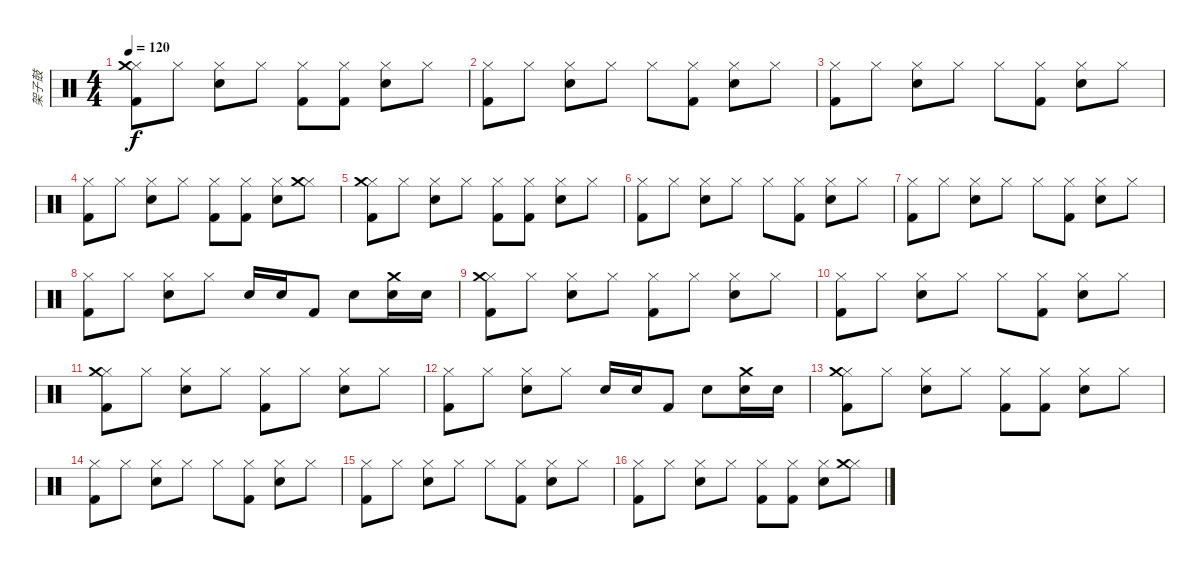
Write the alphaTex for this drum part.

\track ("架子鼓" "架子鼓") {instrument percussion}
\staff {score}
\articulation defaults
\ts (4 4)
\tempo 120
\clef neutral
\ks c
("Hi-Hat (closed)" "Kick (hit) 2" "Crash medium (hit)").8{dy f} "Hi-Hat (closed)".8 ("Hi-Hat (closed)" "Snare (hit) 2").8 "Hi-Hat (closed)".8 ("Hi-Hat (closed)" "Kick (hit) 2").8 ("Hi-Hat (closed)" "Kick (hit) 2").8 ("Hi-Hat (closed)" "Snare (hit) 2").8 "Hi-Hat (closed)".8 |
("Hi-Hat (closed)" "Kick (hit) 2").8 "Hi-Hat (closed)".8 ("Hi-Hat (closed)" "Snare (hit) 2").8 "Hi-Hat (closed)".8 "Hi-Hat (closed)".8 ("Hi-Hat (closed)" "Kick (hit) 2").8 ("Hi-Hat (closed)" "Snare (hit) 2").8 "Hi-Hat (closed)".8 |
("Hi-Hat (closed)" "Kick (hit) 2").8 "Hi-Hat (closed)".8 ("Hi-Hat (closed)" "Snare (hit) 2").8 "Hi-Hat (closed)".8 "Hi-Hat (closed)".8 ("Hi-Hat (closed)" "Kick (hit) 2").8 ("Hi-Hat (closed)" "Snare (hit) 2").8 "Hi-Hat (closed)".8 |
("Hi-Hat (closed)" "Kick (hit) 2").8 "Hi-Hat (closed)".8 ("Hi-Hat (closed)" "Snare (hit) 2").8 "Hi-Hat (closed)".8 ("Hi-Hat (closed)" "Kick (hit) 2").8 ("Hi-Hat (closed)" "Kick (hit) 2").8 ("Hi-Hat (closed)" "Snare (hit) 2").8 ("Hi-Hat (closed)" "Crash medium (hit)").8 |
("Hi-Hat (closed)" "Kick (hit) 2" "Crash medium (hit)").8 "Hi-Hat (closed)".8 ("Hi-Hat (closed)" "Snare (hit) 2").8 "Hi-Hat (closed)".8 ("Hi-Hat (closed)" "Kick (hit) 2").8 ("Hi-Hat (closed)" "Kick (hit) 2").8 ("Hi-Hat (closed)" "Snare (hit) 2").8 "Hi-Hat (closed)".8 |
("Hi-Hat (closed)" "Kick (hit) 2").8 "Hi-Hat (closed)".8 ("Hi-Hat (closed)" "Snare (hit) 2").8 "Hi-Hat (closed)".8 "Hi-Hat (closed)".8 ("Hi-Hat (closed)" "Kick (hit) 2").8 ("Hi-Hat (closed)" "Snare (hit) 2").8 "Hi-Hat (closed)".8 |
("Hi-Hat (closed)" "Kick (hit) 2").8 "Hi-Hat (closed)".8 ("Hi-Hat (closed)" "Snare (hit) 2").8 "Hi-Hat (closed)".8 "Hi-Hat (closed)".8 ("Hi-Hat (closed)" "Kick (hit) 2").8 ("Hi-Hat (closed)" "Snare (hit) 2").8 "Hi-Hat (closed)".8 |
("Hi-Hat (closed)" "Kick (hit) 2").8 "Hi-Hat (closed)".8 ("Hi-Hat (closed)" "Snare (hit) 2").8 "Hi-Hat (closed)".8 "Snare (hit) 2".16 "Snare (hit) 2".16 "Kick (hit) 2".8 "Snare (hit) 2".8 ("Crash medium (hit)" "Snare (hit) 2").16 "Snare (hit) 2".16 |
("Hi-Hat (closed)" "Kick (hit) 2" "Crash medium (hit)").8 "Hi-Hat (closed)".8 ("Hi-Hat (closed)" "Snare (hit) 2").8 "Hi-Hat (closed)".8 ("Hi-Hat (closed)" "Kick (hit) 2").8 "Hi-Hat (closed)".8 ("Hi-Hat (closed)" "Snare (hit) 2").8 "Hi-Hat (closed)".8 |
("Hi-Hat (closed)" "Kick (hit) 2").8 "Hi-Hat (closed)".8 ("Hi-Hat (closed)" "Snare (hit) 2").8 "Hi-Hat (closed)".8 "Hi-Hat (closed)".8 ("Hi-Hat (closed)" "Kick (hit) 2").8 ("Hi-Hat (closed)" "Snare (hit) 2").8 "Hi-Hat (closed)".8 |
("Hi-Hat (closed)" "Kick (hit) 2" "Crash medium (hit)").8 "Hi-Hat (closed)".8 ("Hi-Hat (closed)" "Snare (hit) 2").8 "Hi-Hat (closed)".8 ("Hi-Hat (closed)" "Kick (hit) 2").8 "Hi-Hat (closed)".8 ("Hi-Hat (closed)" "Snare (hit) 2").8 "Hi-Hat (closed)".8 |
("Hi-Hat (closed)" "Kick (hit) 2").8 "Hi-Hat (closed)".8 ("Hi-Hat (closed)" "Snare (hit) 2").8 "Hi-Hat (closed)".8 "Snare (hit) 2".16 "Snare (hit) 2".16 "Kick (hit) 2".8 "Snare (hit) 2".8 ("Crash medium (hit)" "Snare (hit) 2").16 "Snare (hit) 2".16 |
("Hi-Hat (closed)" "Kick (hit) 2" "Crash medium (hit)").8 "Hi-Hat (closed)".8 ("Hi-Hat (closed)" "Snare (hit) 2").8 "Hi-Hat (closed)".8 ("Hi-Hat (closed)" "Kick (hit) 2").8 ("Hi-Hat (closed)" "Kick (hit) 2").8 ("Hi-Hat (closed)" "Snare (hit) 2").8 "Hi-Hat (closed)".8 |
("Hi-Hat (closed)" "Kick (hit) 2").8 "Hi-Hat (closed)".8 ("Hi-Hat (closed)" "Snare (hit) 2").8 "Hi-Hat (closed)".8 "Hi-Hat (closed)".8 ("Hi-Hat (closed)" "Kick (hit) 2").8 ("Hi-Hat (closed)" "Snare (hit) 2").8 "Hi-Hat (closed)".8 |
("Hi-Hat (closed)" "Kick (hit) 2").8 "Hi-Hat (closed)".8 ("Hi-Hat (closed)" "Snare (hit) 2").8 "Hi-Hat (closed)".8 "Hi-Hat (closed)".8 ("Hi-Hat (closed)" "Kick (hit) 2").8 ("Hi-Hat (closed)" "Snare (hit) 2").8 "Hi-Hat (closed)".8 |
("Hi-Hat (closed)" "Kick (hit) 2").8 "Hi-Hat (closed)".8 ("Hi-Hat (closed)" "Snare (hit) 2").8 "Hi-Hat (closed)".8 ("Hi-Hat (closed)" "Kick (hit) 2").8 ("Hi-Hat (closed)" "Kick (hit) 2").8 ("Hi-Hat (closed)" "Snare (hit) 2").8 ("Hi-Hat (closed)" "Crash medium (hit)").8
